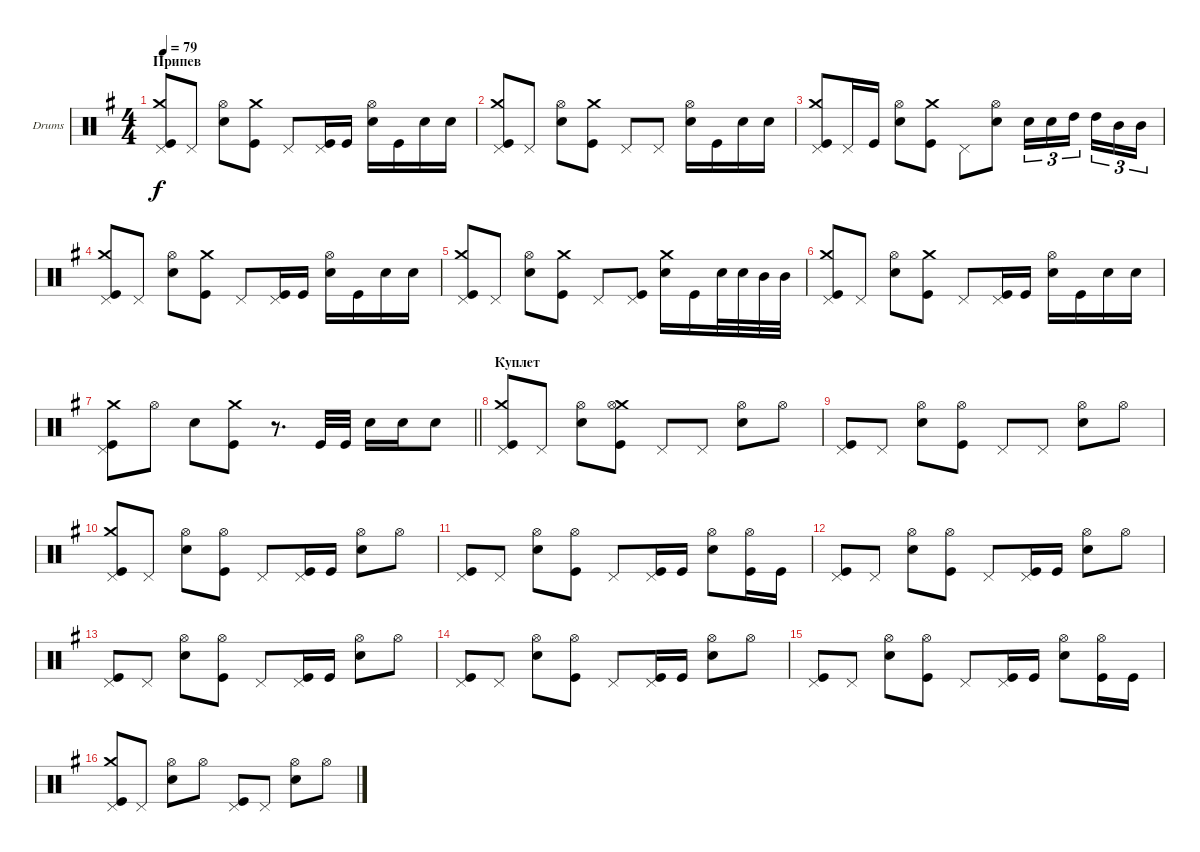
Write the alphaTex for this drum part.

\bracketExtendMode groupsimilarinstruments
\firstSystemTrackNameOrientation horizontal
\otherSystemsTrackNameOrientation horizontal
\track ("Александр Манякин" "Drums") {instrument percussion}
\staff {score}
\articulation defaults
\ts (4 4)
\section ("" "Припев")
\tempo 79
\clef neutral
\ks eminor
("Kick (hit)" "Crash medium (hit)" "Pedal Hi-Hat (hit)").8{dy f} "Pedal Hi-Hat (hit)".8 ("Snare (hit) 2" "Hi-Hat (open)").8 ("Kick (hit)" "Crash medium (hit)").8 "Pedal Hi-Hat (hit)".8 ("Kick (hit)" "Pedal Hi-Hat (hit)").16 "Kick (hit)".16 ("Snare (hit) 2" "Hi-Hat (open)").16 "Kick (hit)".16 "Snare (hit) 2".16 "Snare (hit) 2".16 |
("Kick (hit)" "Crash medium (hit)" "Pedal Hi-Hat (hit)").8 "Pedal Hi-Hat (hit)".8 ("Snare (hit) 2" "Hi-Hat (open)").8 ("Kick (hit)" "Crash medium (hit)").8 "Pedal Hi-Hat (hit)".8 "Pedal Hi-Hat (hit)".8 ("Snare (hit) 2" "Hi-Hat (open)").16 "Kick (hit)".16 "Snare (hit) 2".16 "Snare (hit) 2".16 |
("Kick (hit)" "Crash medium (hit)" "Pedal Hi-Hat (hit)").8 "Pedal Hi-Hat (hit)".16 "Kick (hit)".16 ("Snare (hit) 2" "Hi-Hat (open)").8 ("Kick (hit)" "Crash medium (hit)").8 "Pedal Hi-Hat (hit)".8 ("Snare (hit) 2" "Hi-Hat (open)").8 "Snare (hit) 2".16{tu (3 2)} "Snare (hit) 2".16{tu (3 2)} "High Tom (hit)".16{tu (3 2)} "High Tom (hit)".16{tu (3 2)} "Mid Tom (hit)".16{tu (3 2)} "Mid Tom (hit)".16{tu (3 2)} |
("Kick (hit)" "Crash medium (hit)" "Pedal Hi-Hat (hit)").8 "Pedal Hi-Hat (hit)".8 ("Snare (hit) 2" "Hi-Hat (open)").8 ("Kick (hit)" "Crash medium (hit)").8 "Pedal Hi-Hat (hit)".8 ("Kick (hit)" "Pedal Hi-Hat (hit)").16 "Kick (hit)".16 ("Snare (hit) 2" "Hi-Hat (open)").16 "Kick (hit)".16 "Snare (hit) 2".16 "Snare (hit) 2".16 |
("Kick (hit)" "Crash medium (hit)" "Pedal Hi-Hat (hit)").8 "Pedal Hi-Hat (hit)".8 ("Snare (hit) 2" "Hi-Hat (open)").8 ("Kick (hit)" "Crash medium (hit)").8 "Pedal Hi-Hat (hit)".8 ("Kick (hit)" "Pedal Hi-Hat (hit)").8 ("Snare (hit) 2" "Crash medium (hit)").16 "Kick (hit)".16 "Snare (hit) 2".32 "Snare (hit) 2".32 "Mid Tom (hit)".32 "Mid Tom (hit)".32 |
("Kick (hit)" "Crash medium (hit)" "Pedal Hi-Hat (hit)").8 "Pedal Hi-Hat (hit)".8 ("Snare (hit) 2" "Hi-Hat (open)").8 ("Kick (hit)" "Crash medium (hit)").8 "Pedal Hi-Hat (hit)".8 ("Kick (hit)" "Pedal Hi-Hat (hit)").16 "Kick (hit)".16 ("Snare (hit) 2" "Hi-Hat (open)").16 "Kick (hit)".16 "Snare (hit) 2".16 "Snare (hit) 2".16 |
\barLineRight lightlight
("Kick (hit)" "Pedal Hi-Hat (hit)" "Crash medium (hit)").8 "Hi-Hat (open)".8 "Snare (hit) 2".8 ("Kick (hit)" "Crash medium (hit)").8 r.8{d} "Kick (hit)".32 "Kick (hit)".32 "Snare (hit) 2".16 "Snare (hit) 2".16 "Snare (hit) 2".8 |
\section ("" "Куплет")
("Kick (hit)" "Crash medium (hit)" "Pedal Hi-Hat (hit)").8 "Pedal Hi-Hat (hit)".8 ("Hi-Hat (open)" "Snare (hit) 2").8 ("Kick (hit)" "Crash medium (hit)" "Hi-Hat (open)").8 "Pedal Hi-Hat (hit)".8 "Pedal Hi-Hat (hit)".8 ("Snare (hit) 2" "Hi-Hat (open)").8 "Hi-Hat (open)".8 |
("Kick (hit)" "Pedal Hi-Hat (hit)").8 "Pedal Hi-Hat (hit)".8 ("Hi-Hat (open)" "Snare (hit) 2").8 ("Hi-Hat (open)" "Kick (hit)").8 "Pedal Hi-Hat (hit)".8 "Pedal Hi-Hat (hit)".8 ("Hi-Hat (open)" "Snare (hit) 2").8 "Hi-Hat (open)".8 |
("Kick (hit)" "Crash medium (hit)" "Pedal Hi-Hat (hit)").8 "Pedal Hi-Hat (hit)".8 ("Hi-Hat (open)" "Snare (hit) 2").8 ("Kick (hit)" "Hi-Hat (open)").8 "Pedal Hi-Hat (hit)".8 ("Kick (hit)" "Pedal Hi-Hat (hit)").16 "Kick (hit)".16 ("Hi-Hat (open)" "Snare (hit) 2").8 "Hi-Hat (open)".8 |
("Kick (hit)" "Pedal Hi-Hat (hit)").8 "Pedal Hi-Hat (hit)".8 ("Hi-Hat (open)" "Snare (hit) 2").8 ("Hi-Hat (open)" "Kick (hit)").8 "Pedal Hi-Hat (hit)".8 ("Pedal Hi-Hat (hit)" "Kick (hit)").16 "Kick (hit)".16 ("Hi-Hat (open)" "Snare (hit) 2").8 ("Hi-Hat (open)" "Kick (hit)").16 "Kick (hit)".16 |
("Kick (hit)" "Pedal Hi-Hat (hit)").8 "Pedal Hi-Hat (hit)".8 ("Hi-Hat (open)" "Snare (hit) 2").8 ("Hi-Hat (open)" "Kick (hit)").8 "Pedal Hi-Hat (hit)".8 ("Pedal Hi-Hat (hit)" "Kick (hit)").16 "Kick (hit)".16 ("Hi-Hat (open)" "Snare (hit) 2").8 "Hi-Hat (open)".8 |
("Kick (hit)" "Pedal Hi-Hat (hit)").8 "Pedal Hi-Hat (hit)".8 ("Hi-Hat (open)" "Snare (hit) 2").8 ("Hi-Hat (open)" "Kick (hit)").8 "Pedal Hi-Hat (hit)".8 ("Pedal Hi-Hat (hit)" "Kick (hit)").16 "Kick (hit)".16 ("Hi-Hat (open)" "Snare (hit) 2").8 "Hi-Hat (open)".8 |
("Kick (hit)" "Pedal Hi-Hat (hit)").8 "Pedal Hi-Hat (hit)".8 ("Hi-Hat (open)" "Snare (hit) 2").8 ("Hi-Hat (open)" "Kick (hit)").8 "Pedal Hi-Hat (hit)".8 ("Pedal Hi-Hat (hit)" "Kick (hit)").16 "Kick (hit)".16 ("Hi-Hat (open)" "Snare (hit) 2").8 "Hi-Hat (open)".8 |
("Kick (hit)" "Pedal Hi-Hat (hit)").8 "Pedal Hi-Hat (hit)".8 ("Hi-Hat (open)" "Snare (hit) 2").8 ("Hi-Hat (open)" "Kick (hit)").8 "Pedal Hi-Hat (hit)".8 ("Pedal Hi-Hat (hit)" "Kick (hit)").16 "Kick (hit)".16 ("Hi-Hat (open)" "Snare (hit) 2").8 ("Hi-Hat (open)" "Kick (hit)").16 "Kick (hit)".16 |
("Kick (hit)" "Crash medium (hit)" "Pedal Hi-Hat (hit)").8 "Pedal Hi-Hat (hit)".8 ("Hi-Hat (open)" "Snare (hit) 2").8 "Hi-Hat (open)".8 ("Kick (hit)" "Pedal Hi-Hat (hit)").8 "Pedal Hi-Hat (hit)".8 ("Hi-Hat (open)" "Snare (hit) 2").8 "Hi-Hat (open)".8
